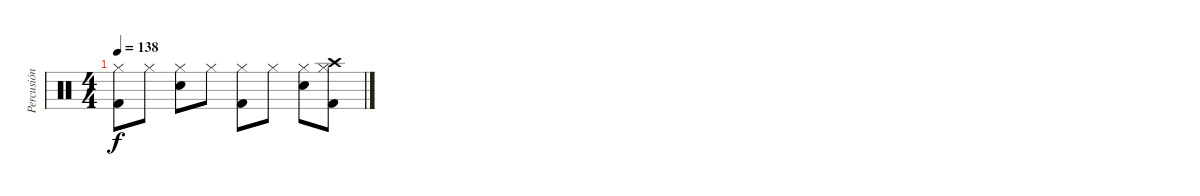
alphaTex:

\track ("Percusión" "Percusión") {instrument percussion bank 10}
\staff {score}
\articulation defaults
\ts (4 4)
\tempo 138
\clef neutral
\ks c
("Hi-Hat (closed)" "Kick (hit) 2").8{dy f} "Hi-Hat (closed)".8 ("Hi-Hat (closed)" "Snare (hit) 2").8 "Hi-Hat (closed)".8 ("Hi-Hat (closed)" "Kick (hit) 2").8 "Hi-Hat (closed)".8 ("Hi-Hat (closed)" "Snare (hit) 2").8 ("Hi-Hat (closed)" "Crash high (hit)" "Kick (hit) 2").8
